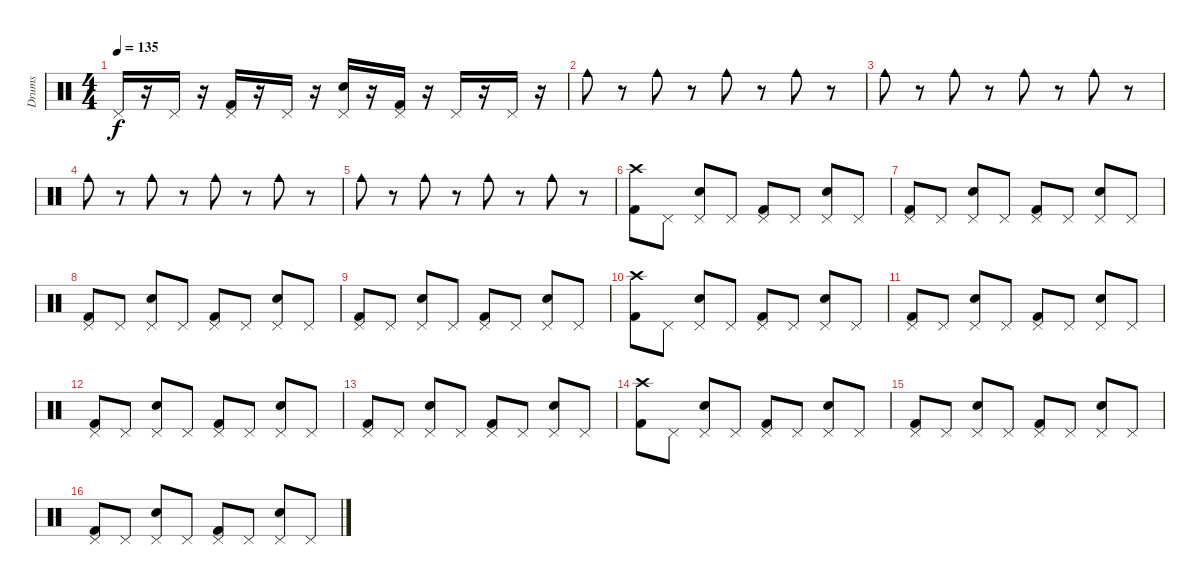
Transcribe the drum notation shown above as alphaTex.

\track ("Drums" "Drums") {instrument percussion}
\staff {score}
\articulation defaults
\ts (4 4)
\tempo 135
\clef neutral
\ks c "Pedal Hi-Hat (hit)".16{dy f}
r.16 "Pedal Hi-Hat (hit)".16 r.16 ("Pedal Hi-Hat (hit)" "Kick (hit) 2").16 r.16 "Pedal Hi-Hat (hit)".16 r.16 ("Pedal Hi-Hat (hit)" "Snare (hit) 2").16 r.16 ("Pedal Hi-Hat (hit)" "Kick (hit) 2").16 r.16 "Pedal Hi-Hat (hit)".16 r.16 "Pedal Hi-Hat (hit)".16 r.16 |
"Cowbell medium (hit)".8 r.8 "Cowbell medium (hit)".8 r.8 "Cowbell medium (hit)".8 r.8 "Cowbell medium (hit)".8 r.8 |
"Cowbell medium (hit)".8 r.8 "Cowbell medium (hit)".8 r.8 "Cowbell medium (hit)".8 r.8 "Cowbell medium (hit)".8 r.8 |
"Cowbell medium (hit)".8 r.8 "Cowbell medium (hit)".8 r.8 "Cowbell medium (hit)".8 r.8 "Cowbell medium (hit)".8 r.8 |
"Cowbell medium (hit)".8 r.8 "Cowbell medium (hit)".8 r.8 "Cowbell medium (hit)".8 r.8 "Cowbell medium (hit)".8 r.8 |
("Crash high (hit)" "Kick (hit) 2").8 "Pedal Hi-Hat (hit)".8 ("Pedal Hi-Hat (hit)" "Snare (hit) 2").8 "Pedal Hi-Hat (hit)".8 ("Pedal Hi-Hat (hit)" "Kick (hit) 2").8 "Pedal Hi-Hat (hit)".8 ("Pedal Hi-Hat (hit)" "Snare (hit) 2").8 "Pedal Hi-Hat (hit)".8 |
("Pedal Hi-Hat (hit)" "Kick (hit) 2").8 "Pedal Hi-Hat (hit)".8 ("Pedal Hi-Hat (hit)" "Snare (hit) 2").8 "Pedal Hi-Hat (hit)".8 ("Pedal Hi-Hat (hit)" "Kick (hit) 2").8 "Pedal Hi-Hat (hit)".8 ("Pedal Hi-Hat (hit)" "Snare (hit) 2").8 "Pedal Hi-Hat (hit)".8 |
("Pedal Hi-Hat (hit)" "Kick (hit) 2").8 "Pedal Hi-Hat (hit)".8 ("Pedal Hi-Hat (hit)" "Snare (hit) 2").8 "Pedal Hi-Hat (hit)".8 ("Pedal Hi-Hat (hit)" "Kick (hit) 2").8 "Pedal Hi-Hat (hit)".8 ("Pedal Hi-Hat (hit)" "Snare (hit) 2").8 "Pedal Hi-Hat (hit)".8 |
("Pedal Hi-Hat (hit)" "Kick (hit) 2").8 "Pedal Hi-Hat (hit)".8 ("Pedal Hi-Hat (hit)" "Snare (hit) 2").8 "Pedal Hi-Hat (hit)".8 ("Pedal Hi-Hat (hit)" "Kick (hit) 2").8 "Pedal Hi-Hat (hit)".8 ("Pedal Hi-Hat (hit)" "Snare (hit) 2").8 "Pedal Hi-Hat (hit)".8 |
("Crash high (hit)" "Kick (hit) 2").8 "Pedal Hi-Hat (hit)".8 ("Pedal Hi-Hat (hit)" "Snare (hit) 2").8 "Pedal Hi-Hat (hit)".8 ("Pedal Hi-Hat (hit)" "Kick (hit) 2").8 "Pedal Hi-Hat (hit)".8 ("Pedal Hi-Hat (hit)" "Snare (hit) 2").8 "Pedal Hi-Hat (hit)".8 |
("Pedal Hi-Hat (hit)" "Kick (hit) 2").8 "Pedal Hi-Hat (hit)".8 ("Pedal Hi-Hat (hit)" "Snare (hit) 2").8 "Pedal Hi-Hat (hit)".8 ("Pedal Hi-Hat (hit)" "Kick (hit) 2").8 "Pedal Hi-Hat (hit)".8 ("Pedal Hi-Hat (hit)" "Snare (hit) 2").8 "Pedal Hi-Hat (hit)".8 |
("Pedal Hi-Hat (hit)" "Kick (hit) 2").8 "Pedal Hi-Hat (hit)".8 ("Pedal Hi-Hat (hit)" "Snare (hit) 2").8 "Pedal Hi-Hat (hit)".8 ("Pedal Hi-Hat (hit)" "Kick (hit) 2").8 "Pedal Hi-Hat (hit)".8 ("Pedal Hi-Hat (hit)" "Snare (hit) 2").8 "Pedal Hi-Hat (hit)".8 |
("Pedal Hi-Hat (hit)" "Kick (hit) 2").8 "Pedal Hi-Hat (hit)".8 ("Pedal Hi-Hat (hit)" "Snare (hit) 2").8 "Pedal Hi-Hat (hit)".8 ("Pedal Hi-Hat (hit)" "Kick (hit) 2").8 "Pedal Hi-Hat (hit)".8 ("Pedal Hi-Hat (hit)" "Snare (hit) 2").8 "Pedal Hi-Hat (hit)".8 |
("Crash high (hit)" "Kick (hit) 2").8 "Pedal Hi-Hat (hit)".8 ("Pedal Hi-Hat (hit)" "Snare (hit) 2").8 "Pedal Hi-Hat (hit)".8 ("Pedal Hi-Hat (hit)" "Kick (hit) 2").8 "Pedal Hi-Hat (hit)".8 ("Pedal Hi-Hat (hit)" "Snare (hit) 2").8 "Pedal Hi-Hat (hit)".8 |
("Pedal Hi-Hat (hit)" "Kick (hit) 2").8 "Pedal Hi-Hat (hit)".8 ("Pedal Hi-Hat (hit)" "Snare (hit) 2").8 "Pedal Hi-Hat (hit)".8 ("Pedal Hi-Hat (hit)" "Kick (hit) 2").8 "Pedal Hi-Hat (hit)".8 ("Pedal Hi-Hat (hit)" "Snare (hit) 2").8 "Pedal Hi-Hat (hit)".8 |
("Pedal Hi-Hat (hit)" "Kick (hit) 2").8 "Pedal Hi-Hat (hit)".8 ("Pedal Hi-Hat (hit)" "Snare (hit) 2").8 "Pedal Hi-Hat (hit)".8 ("Pedal Hi-Hat (hit)" "Kick (hit) 2").8 "Pedal Hi-Hat (hit)".8 ("Pedal Hi-Hat (hit)" "Snare (hit) 2").8 "Pedal Hi-Hat (hit)".8
